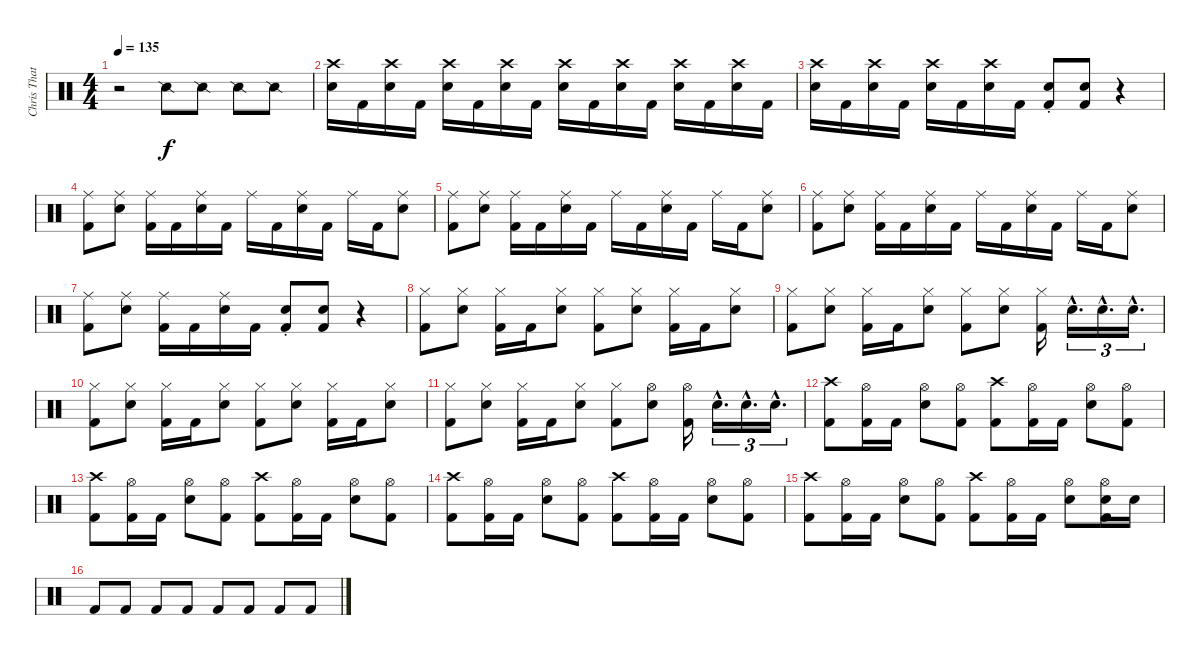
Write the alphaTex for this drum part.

\track ("Chris Thatcher" "Chris That") {instrument percussion}
\staff {score}
\articulation defaults
\ts (4 4)
\tempo 135
\clef neutral
\ks c
r.2{dy f} "Snare (side stick) 2".8 "Snare (side stick) 2".8 "Snare (side stick) 2".8 "Snare (side stick) 2".8 |
("Crash high (hit)" "Electric Snare (hit)").16 "Kick (hit) 2".16 ("Crash high (hit)" "Electric Snare (hit)").16 "Kick (hit) 2".16 ("Crash high (hit)" "Electric Snare (hit)").16 "Kick (hit) 2".16 ("Crash high (hit)" "Electric Snare (hit)").16 "Kick (hit) 2".16 ("Crash high (hit)" "Electric Snare (hit)").16 "Kick (hit) 2".16 ("Crash high (hit)" "Electric Snare (hit)").16 "Kick (hit) 2".16 ("Crash high (hit)" "Electric Snare (hit)").16 "Kick (hit) 2".16 ("Crash high (hit)" "Electric Snare (hit)").16 "Kick (hit) 2".16 |
("Crash high (hit)" "Electric Snare (hit)").16 "Kick (hit) 2".16 ("Crash high (hit)" "Electric Snare (hit)").16 "Kick (hit) 2".16 ("Crash high (hit)" "Electric Snare (hit)").16 "Kick (hit) 2".16 ("Crash high (hit)" "Electric Snare (hit)").16 "Kick (hit) 2".16 ("Electric Snare (hit)"{st} "Kick (hit) 2"{st}).8 ("Electric Snare (hit)" "Kick (hit) 2").8 r.4 |
("Ride (middle)" "Kick (hit) 2").8 ("Ride (middle)" "Electric Snare (hit)").8 ("Ride (middle)" "Kick (hit) 2").16 "Kick (hit) 2".16 ("Ride (middle)" "Electric Snare (hit)").16 "Kick (hit) 2".16 "Ride (middle)".16 "Kick (hit) 2".16 ("Ride (middle)" "Electric Snare (hit)").16 "Kick (hit) 2".16 "Ride (middle)".16 "Kick (hit) 2".16 ("Ride (middle)" "Electric Snare (hit)").8 |
("Ride (middle)" "Kick (hit) 2").8 ("Ride (middle)" "Electric Snare (hit)").8 ("Ride (middle)" "Kick (hit) 2").16 "Kick (hit) 2".16 ("Ride (middle)" "Electric Snare (hit)").16 "Kick (hit) 2".16 "Ride (middle)".16 "Kick (hit) 2".16 ("Ride (middle)" "Electric Snare (hit)").16 "Kick (hit) 2".16 "Ride (middle)".16 "Kick (hit) 2".16 ("Ride (middle)" "Electric Snare (hit)").8 |
("Ride (middle)" "Kick (hit) 2").8 ("Ride (middle)" "Electric Snare (hit)").8 ("Ride (middle)" "Kick (hit) 2").16 "Kick (hit) 2".16 ("Ride (middle)" "Electric Snare (hit)").16 "Kick (hit) 2".16 "Ride (middle)".16 "Kick (hit) 2".16 ("Ride (middle)" "Electric Snare (hit)").16 "Kick (hit) 2".16 "Ride (middle)".16 "Kick (hit) 2".16 ("Ride (middle)" "Electric Snare (hit)").8 |
("Ride (middle)" "Kick (hit) 2").8 ("Ride (middle)" "Electric Snare (hit)").8 ("Ride (middle)" "Kick (hit) 2").16 "Kick (hit) 2".16 ("Ride (middle)" "Electric Snare (hit)").16 "Kick (hit) 2".16 ("Electric Snare (hit)"{st} "Kick (hit) 2"{st}).8 ("Electric Snare (hit)" "Kick (hit) 2").8 r.4 |
("Hi-Hat (closed)" "Kick (hit) 2").8 ("Hi-Hat (closed)" "Electric Snare (hit)").8 ("Hi-Hat (closed)" "Kick (hit) 2").16 "Kick (hit) 2".16 ("Hi-Hat (closed)" "Electric Snare (hit)").8 ("Hi-Hat (closed)" "Kick (hit) 2").8 ("Hi-Hat (closed)" "Electric Snare (hit)").8 ("Hi-Hat (closed)" "Kick (hit) 2").16 "Kick (hit) 2".16 ("Hi-Hat (closed)" "Electric Snare (hit)").8 |
("Hi-Hat (closed)" "Kick (hit) 2").8 ("Hi-Hat (closed)" "Electric Snare (hit)").8 ("Hi-Hat (closed)" "Kick (hit) 2").16 "Kick (hit) 2".16 ("Hi-Hat (closed)" "Electric Snare (hit)").8 ("Hi-Hat (closed)" "Kick (hit) 2").8 ("Hi-Hat (closed)" "Electric Snare (hit)").8 ("Hi-Hat (closed)" "Kick (hit) 2").16 "Electric Snare (hit)"{hac}.16{d tu (3 2)} "Electric Snare (hit)"{hac}.16{d tu (3 2)} "Electric Snare (hit)"{hac}.16{d tu (3 2)} |
("Hi-Hat (closed)" "Kick (hit) 2").8 ("Hi-Hat (closed)" "Electric Snare (hit)").8 ("Hi-Hat (closed)" "Kick (hit) 2").16 "Kick (hit) 2".16 ("Hi-Hat (closed)" "Electric Snare (hit)").8 ("Hi-Hat (closed)" "Kick (hit) 2").8 ("Hi-Hat (closed)" "Electric Snare (hit)").8 ("Hi-Hat (closed)" "Kick (hit) 2").16 "Kick (hit) 2".16 ("Hi-Hat (closed)" "Electric Snare (hit)").8 |
("Hi-Hat (closed)" "Kick (hit) 2").8 ("Hi-Hat (closed)" "Electric Snare (hit)").8 ("Hi-Hat (closed)" "Kick (hit) 2").16 "Kick (hit) 2".16 ("Hi-Hat (closed)" "Electric Snare (hit)").8 ("Hi-Hat (closed)" "Kick (hit) 2").8 ("Hi-Hat (open)" "Electric Snare (hit)").8 ("Hi-Hat (open)" "Kick (hit) 2").16 "Electric Snare (hit)"{hac}.16{d tu (3 2)} "Electric Snare (hit)"{hac}.16{d tu (3 2)} "Electric Snare (hit)"{hac}.16{d tu (3 2)} |
("Crash high (hit)" "Kick (hit) 2").8 ("Hi-Hat (open)" "Kick (hit) 2").16 "Kick (hit) 2".16 ("Hi-Hat (open)" "Electric Snare (hit)").8 ("Hi-Hat (open)" "Kick (hit) 2").8 ("Crash high (hit)" "Kick (hit) 2").8 ("Hi-Hat (open)" "Kick (hit) 2").16 "Kick (hit) 2".16 ("Hi-Hat (open)" "Electric Snare (hit)").8 ("Hi-Hat (open)" "Kick (hit) 2").8 |
("Crash high (hit)" "Kick (hit) 2").8 ("Hi-Hat (open)" "Kick (hit) 2").16 "Kick (hit) 2".16 ("Hi-Hat (open)" "Electric Snare (hit)").8 ("Hi-Hat (open)" "Kick (hit) 2").8 ("Crash high (hit)" "Kick (hit) 2").8 ("Hi-Hat (open)" "Kick (hit) 2").16 "Kick (hit) 2".16 ("Hi-Hat (open)" "Electric Snare (hit)").8 ("Hi-Hat (open)" "Kick (hit) 2").8 |
("Crash high (hit)" "Kick (hit) 2").8 ("Hi-Hat (open)" "Kick (hit) 2").16 "Kick (hit) 2".16 ("Hi-Hat (open)" "Electric Snare (hit)").8 ("Hi-Hat (open)" "Kick (hit) 2").8 ("Crash high (hit)" "Kick (hit) 2").8 ("Hi-Hat (open)" "Kick (hit) 2").16 "Kick (hit) 2".16 ("Hi-Hat (open)" "Electric Snare (hit)").8 ("Hi-Hat (open)" "Kick (hit) 2").8 |
("Crash high (hit)" "Kick (hit) 2").8 ("Hi-Hat (open)" "Kick (hit) 2").16 "Kick (hit) 2".16 ("Hi-Hat (open)" "Electric Snare (hit)").8 ("Hi-Hat (open)" "Kick (hit) 2").8 ("Crash high (hit)" "Kick (hit) 2").8 ("Hi-Hat (open)" "Kick (hit) 2").16 "Kick (hit) 2".16 ("Hi-Hat (open)" "Electric Snare (hit)").8 ("Hi-Hat (open)" "Electric Snare (hit)" "Kick (hit) 2").16 "Electric Snare (hit)".16 |
"Kick (hit) 2".8 "Kick (hit) 2".8 "Kick (hit) 2".8 "Kick (hit) 2".8 "Kick (hit) 2".8 "Kick (hit) 2".8 "Kick (hit) 2".8 "Kick (hit) 2".8
